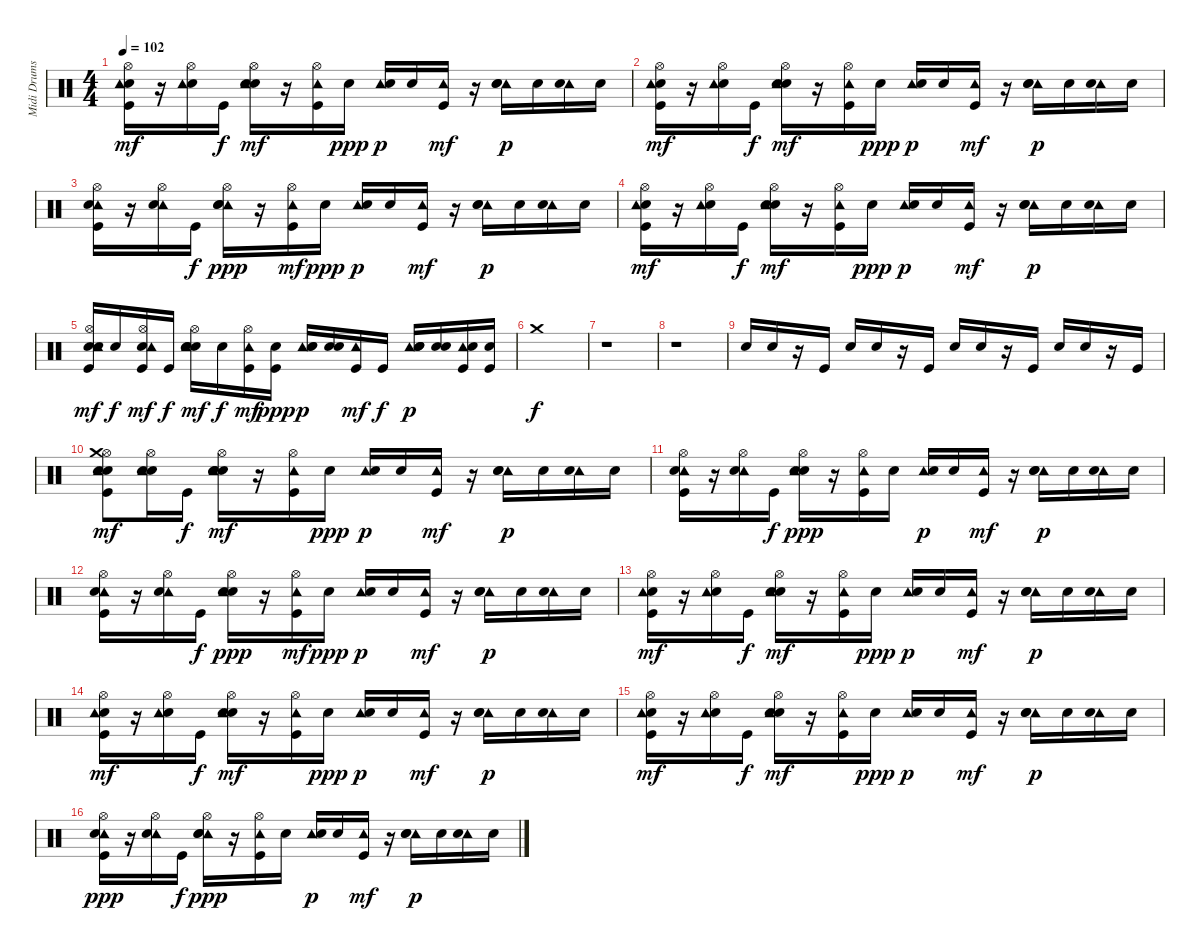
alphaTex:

\track ("Midi Drums" "Midi Drums") {instrument percussion}
\staff {score}
\articulation defaults
\ts (4 4)
\tempo 102
\clef neutral
\ks c
("Kick (hit)" "Hi-Hat (open)" "Electric Snare (hit)" "Tambourine (hit)").16{dy mf} r.16 ("Hi-Hat (open)" "Electric Snare (hit)" "Tambourine (hit)").16 "Kick (hit)".16{dy f} ("Snare (hit) 2" "Hi-Hat (open)" "Electric Snare (hit)" "Tambourine (hit)").16{dy mf} r.16 ("Kick (hit)" "Hi-Hat (open)" "Tambourine (hit)").16 "Electric Snare (hit)".16{dy ppp} ("Tambourine (hit)" "Electric Snare (hit)").16{dy p} "Electric Snare (hit)".16 ("Kick (hit)" "Tambourine (hit)").16{dy mf} r.16 ("Tambourine (hit)" "Electric Snare (hit)" "Snare (hit) 2").16{dy p} "Electric Snare (hit)".16 ("Tambourine (hit)" "Electric Snare (hit)").16 "Electric Snare (hit)".16 |
("Hi-Hat (open)" "Kick (hit)" "Electric Snare (hit)" "Tambourine (hit)").16{dy mf} r.16 ("Hi-Hat (open)" "Electric Snare (hit)" "Tambourine (hit)").16 "Kick (hit)".16{dy f} ("Hi-Hat (open)" "Snare (hit) 2" "Electric Snare (hit)" "Tambourine (hit)").16{dy mf} r.16 ("Hi-Hat (open)" "Kick (hit)" "Tambourine (hit)").16 "Electric Snare (hit)".16{dy ppp} ("Tambourine (hit)" "Electric Snare (hit)").16{dy p} "Electric Snare (hit)".16 ("Kick (hit)" "Tambourine (hit)").16{dy mf} r.16 ("Tambourine (hit)" "Electric Snare (hit)" "Snare (hit) 2").16{dy p} "Electric Snare (hit)".16 ("Tambourine (hit)" "Electric Snare (hit)").16 "Electric Snare (hit)".16 |
("Hi-Hat (open)" "Tambourine (hit)" "Electric Snare (hit)" "Kick (hit)").16 r.16 ("Hi-Hat (open)" "Tambourine (hit)" "Electric Snare (hit)").16 "Kick (hit)".16{dy f} ("Hi-Hat (open)" "Tambourine (hit)" "Electric Snare (hit)" "Snare (hit) 2").16{dy ppp} r.16 ("Hi-Hat (open)" "Tambourine (hit)" "Kick (hit)").16{dy mf} "Electric Snare (hit)".16{dy ppp} ("Tambourine (hit)" "Electric Snare (hit)").16{dy p} "Electric Snare (hit)".16 ("Tambourine (hit)" "Kick (hit)").16{dy mf} r.16 ("Tambourine (hit)" "Electric Snare (hit)" "Snare (hit) 2").16{dy p} "Electric Snare (hit)".16 ("Tambourine (hit)" "Electric Snare (hit)").16 "Electric Snare (hit)".16 |
("Hi-Hat (open)" "Kick (hit)" "Electric Snare (hit)" "Tambourine (hit)").16{dy mf} r.16 ("Hi-Hat (open)" "Electric Snare (hit)" "Tambourine (hit)").16 "Kick (hit)".16{dy f} ("Hi-Hat (open)" "Snare (hit) 2" "Electric Snare (hit)" "Tambourine (hit)").16{dy mf} r.16 ("Hi-Hat (open)" "Kick (hit)" "Tambourine (hit)").16 "Electric Snare (hit)".16{dy ppp} ("Tambourine (hit)" "Electric Snare (hit)").16{dy p} "Electric Snare (hit)".16 ("Kick (hit)" "Tambourine (hit)").16{dy mf} r.16 ("Tambourine (hit)" "Electric Snare (hit)" "Snare (hit) 2").16{dy p} "Electric Snare (hit)".16 ("Tambourine (hit)" "Electric Snare (hit)").16 "Electric Snare (hit)".16 |
("Electric Snare (hit)" "Hi-Hat (open)" "Kick (hit)" "Tambourine (hit)" "Snare (hit) 2").16{dy mf} "Snare (hit) 2".16{dy f} ("Kick (hit)" "Electric Snare (hit)" "Hi-Hat (open)" "Tambourine (hit)").16{dy mf} "Kick (hit)".16{dy f} ("Electric Snare (hit)" "Hi-Hat (open)" "Snare (hit) 2" "Tambourine (hit)" "Snare (hit) 2").16{dy mf} "Snare (hit) 2".16{dy f} ("Hi-Hat (open)" "Kick (hit)" "Tambourine (hit)").16{dy mf} ("Kick (hit)" "Electric Snare (hit)").16{dy ppp} ("Tambourine (hit)" "Snare (hit) 2" "Electric Snare (hit)").16{dy p} ("Snare (hit) 2" "Electric Snare (hit)").16 ("Kick (hit)" "Tambourine (hit)").16{dy mf} "Kick (hit)".16{dy f} ("Tambourine (hit)" "Snare (hit) 2" "Electric Snare (hit)" "Snare (hit) 2").16{dy p} ("Snare (hit) 2" "Electric Snare (hit)").16 ("Tambourine (hit)" "Kick (hit)" "Electric Snare (hit)").16 ("Kick (hit)" "Electric Snare (hit)").16 |
"Crash medium (hit)".1{dy f} |
r.1 |
r.1 |
"Snare (hit) 2".16 "Snare (hit) 2".16 r.16 "Kick (hit)".16 "Snare (hit) 2".16 "Snare (hit) 2".16 r.16 "Kick (hit)".16 "Snare (hit) 2".16 "Snare (hit) 2".16 r.16 "Kick (hit)".16 "Snare (hit) 2".16 "Snare (hit) 2".16 r.16 "Kick (hit)".16 |
("Hi-Hat (open)" "Electric Snare (hit)" "Electric Snare (hit)" "Crash medium (hit)" "Tambourine (hit)" "Kick (hit)").8{dy mf} ("Hi-Hat (open)" "Electric Snare (hit)" "Electric Snare (hit)" "Tambourine (hit)").16 "Kick (hit)".16{dy f} ("Hi-Hat (open)" "Electric Snare (hit)" "Electric Snare (hit)" "Tambourine (hit)" "Snare (hit) 2").16{dy mf} r.16 ("Hi-Hat (open)" "Tambourine (hit)" "Kick (hit)").16 "Electric Snare (hit)".16{dy ppp} ("Tambourine (hit)" "Electric Snare (hit)").16{dy p} "Electric Snare (hit)".16 ("Tambourine (hit)" "Kick (hit)").16{dy mf} r.16 ("Tambourine (hit)" "Electric Snare (hit)" "Snare (hit) 2").16{dy p} "Electric Snare (hit)".16 ("Tambourine (hit)" "Electric Snare (hit)").16 "Electric Snare (hit)".16 |
("Kick (hit)" "Tambourine (hit)" "Hi-Hat (open)" "Electric Snare (hit)").16 r.16 ("Tambourine (hit)" "Hi-Hat (open)" "Electric Snare (hit)").16 "Kick (hit)".16{dy f} ("Snare (hit) 2" "Tambourine (hit)" "Hi-Hat (open)" "Electric Snare (hit)").16{dy ppp} r.16 ("Kick (hit)" "Tambourine (hit)" "Hi-Hat (open)").16 "Electric Snare (hit)".16 ("Tambourine (hit)" "Electric Snare (hit)").16{dy p} "Electric Snare (hit)".16 ("Kick (hit)" "Tambourine (hit)").16{dy mf} r.16 ("Tambourine (hit)" "Electric Snare (hit)" "Snare (hit) 2").16{dy p} "Electric Snare (hit)".16 ("Tambourine (hit)" "Electric Snare (hit)").16 "Electric Snare (hit)".16 |
("Kick (hit)" "Hi-Hat (open)" "Tambourine (hit)" "Electric Snare (hit)").16 r.16 ("Hi-Hat (open)" "Tambourine (hit)" "Electric Snare (hit)").16 "Kick (hit)".16{dy f} ("Snare (hit) 2" "Hi-Hat (open)" "Tambourine (hit)" "Electric Snare (hit)").16{dy ppp} r.16 ("Kick (hit)" "Hi-Hat (open)" "Tambourine (hit)").16{dy mf} "Electric Snare (hit)".16{dy ppp} ("Tambourine (hit)" "Electric Snare (hit)").16{dy p} "Electric Snare (hit)".16 ("Kick (hit)" "Tambourine (hit)").16{dy mf} r.16 ("Tambourine (hit)" "Electric Snare (hit)" "Snare (hit) 2").16{dy p} "Electric Snare (hit)".16 ("Tambourine (hit)" "Electric Snare (hit)").16 "Electric Snare (hit)".16 |
("Hi-Hat (open)" "Kick (hit)" "Electric Snare (hit)" "Tambourine (hit)").16{dy mf} r.16 ("Hi-Hat (open)" "Electric Snare (hit)" "Tambourine (hit)").16 "Kick (hit)".16{dy f} ("Hi-Hat (open)" "Snare (hit) 2" "Electric Snare (hit)" "Tambourine (hit)").16{dy mf} r.16 ("Hi-Hat (open)" "Kick (hit)" "Tambourine (hit)").16 "Electric Snare (hit)".16{dy ppp} ("Tambourine (hit)" "Electric Snare (hit)").16{dy p} "Electric Snare (hit)".16 ("Kick (hit)" "Tambourine (hit)").16{dy mf} r.16 ("Tambourine (hit)" "Electric Snare (hit)" "Snare (hit) 2").16{dy p} "Electric Snare (hit)".16 ("Tambourine (hit)" "Electric Snare (hit)").16 "Electric Snare (hit)".16 |
("Electric Snare (hit)" "Kick (hit)" "Hi-Hat (open)" "Tambourine (hit)").16{dy mf} r.16 ("Electric Snare (hit)" "Hi-Hat (open)" "Tambourine (hit)").16 "Kick (hit)".16{dy f} ("Electric Snare (hit)" "Snare (hit) 2" "Hi-Hat (open)" "Tambourine (hit)").16{dy mf} r.16 ("Kick (hit)" "Hi-Hat (open)" "Tambourine (hit)").16 "Electric Snare (hit)".16{dy ppp} ("Tambourine (hit)" "Electric Snare (hit)").16{dy p} "Electric Snare (hit)".16 ("Kick (hit)" "Tambourine (hit)").16{dy mf} r.16 ("Tambourine (hit)" "Electric Snare (hit)" "Snare (hit) 2").16{dy p} "Electric Snare (hit)".16 ("Tambourine (hit)" "Electric Snare (hit)").16 "Electric Snare (hit)".16 |
("Electric Snare (hit)" "Kick (hit)" "Hi-Hat (open)" "Tambourine (hit)").16{dy mf} r.16 ("Electric Snare (hit)" "Hi-Hat (open)" "Tambourine (hit)").16 "Kick (hit)".16{dy f} ("Electric Snare (hit)" "Snare (hit) 2" "Hi-Hat (open)" "Tambourine (hit)").16{dy mf} r.16 ("Kick (hit)" "Hi-Hat (open)" "Tambourine (hit)").16 "Electric Snare (hit)".16{dy ppp} ("Tambourine (hit)" "Electric Snare (hit)").16{dy p} "Electric Snare (hit)".16 ("Kick (hit)" "Tambourine (hit)").16{dy mf} r.16 ("Tambourine (hit)" "Electric Snare (hit)" "Snare (hit) 2").16{dy p} "Electric Snare (hit)".16 ("Tambourine (hit)" "Electric Snare (hit)").16 "Electric Snare (hit)".16 |
("Tambourine (hit)" "Electric Snare (hit)" "Kick (hit)" "Hi-Hat (open)").16{dy ppp} r.16 ("Tambourine (hit)" "Electric Snare (hit)" "Hi-Hat (open)").16 "Kick (hit)".16{dy f} ("Tambourine (hit)" "Electric Snare (hit)" "Snare (hit) 2" "Hi-Hat (open)").16{dy ppp} r.16 ("Tambourine (hit)" "Kick (hit)" "Hi-Hat (open)").16 "Electric Snare (hit)".16 ("Tambourine (hit)" "Electric Snare (hit)").16{dy p} "Electric Snare (hit)".16 ("Tambourine (hit)" "Kick (hit)").16{dy mf} r.16 ("Tambourine (hit)" "Electric Snare (hit)" "Snare (hit) 2").16{dy p} "Electric Snare (hit)".16 ("Tambourine (hit)" "Electric Snare (hit)").16 "Electric Snare (hit)".16
